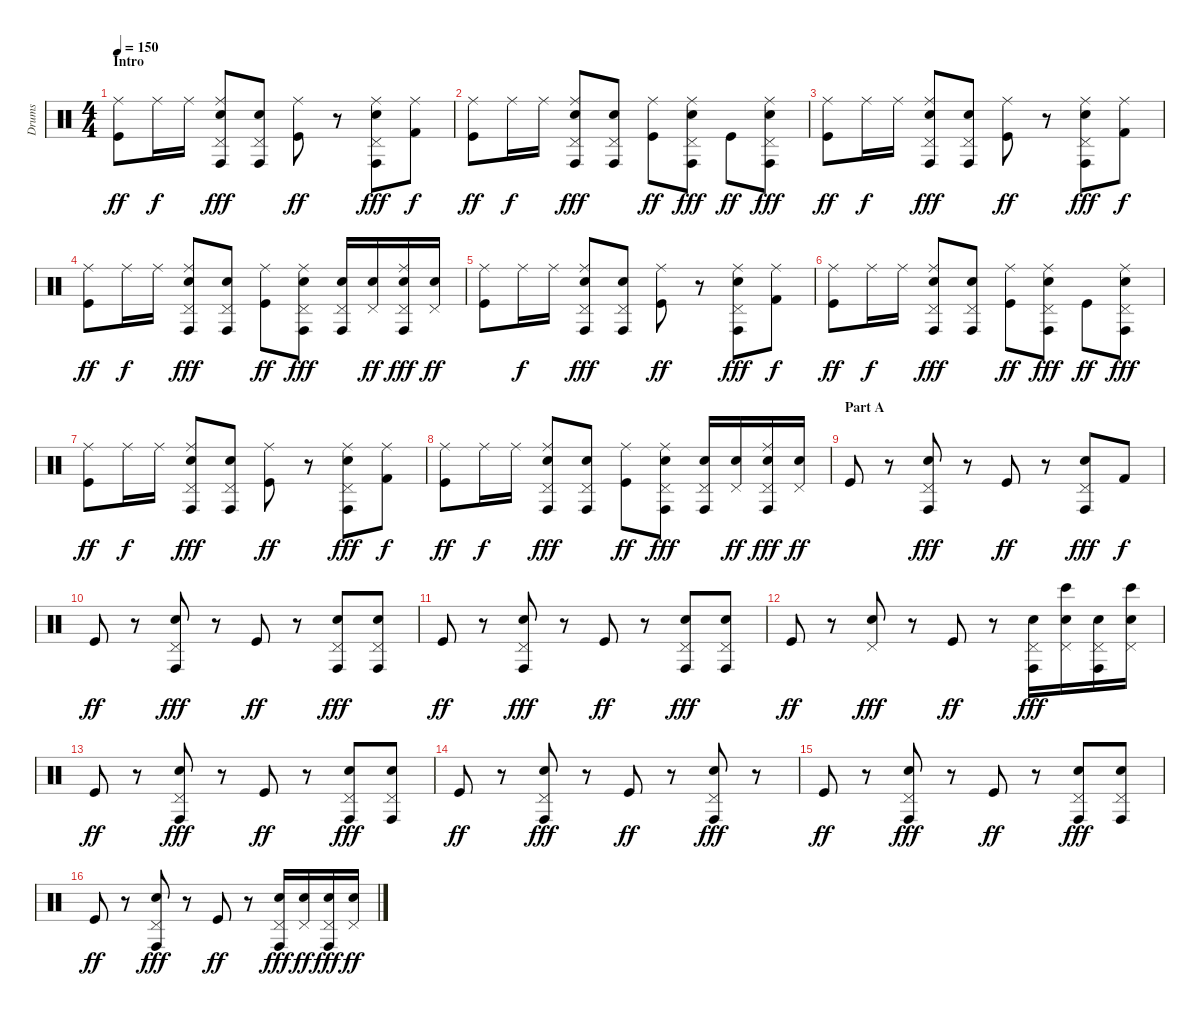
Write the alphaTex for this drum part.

\track ("Drums" "Drums") {instrument percussion}
\staff {score}
\articulation defaults
\ts (4 4)
\section ("" "Intro")
\tempo 150
\clef neutral
\ks c
("Ride (middle)" "Kick (hit)").8{dy ff} "Ride (middle)".16{dy f} "Ride (middle)".16 ("Ride (middle)" "Pedal Hi-Hat (hit)" "Conga high (hit)" "Electric Snare (hit)").8{dy fff} ("Pedal Hi-Hat (hit)" "Conga high (hit)" "Electric Snare (hit)").8 ("Ride (middle)" "Kick (hit)").8{dy ff} r.8 ("Ride (middle)" "Pedal Hi-Hat (hit)" "Conga high (hit)" "Electric Snare (hit)").8{dy fff} ("Ride (middle)" "Kick (hit) 2").8{dy f} |
("Ride (middle)" "Kick (hit)").8{dy ff} "Ride (middle)".16{dy f} "Ride (middle)".16 ("Ride (middle)" "Pedal Hi-Hat (hit)" "Conga high (hit)" "Electric Snare (hit)").8{dy fff} ("Pedal Hi-Hat (hit)" "Conga high (hit)" "Electric Snare (hit)").8 ("Ride (middle)" "Kick (hit)").8{dy ff} ("Ride (middle)" "Pedal Hi-Hat (hit)" "Conga high (hit)" "Electric Snare (hit)").8{dy fff} "Kick (hit)".8{dy ff} ("Ride (middle)" "Pedal Hi-Hat (hit)" "Conga high (hit)" "Electric Snare (hit)").8{dy fff} |
("Ride (middle)" "Kick (hit)").8{dy ff} "Ride (middle)".16{dy f} "Ride (middle)".16 ("Ride (middle)" "Pedal Hi-Hat (hit)" "Conga high (hit)" "Electric Snare (hit)").8{dy fff} ("Pedal Hi-Hat (hit)" "Conga high (hit)" "Electric Snare (hit)").8 ("Ride (middle)" "Kick (hit)").8{dy ff} r.8 ("Ride (middle)" "Pedal Hi-Hat (hit)" "Conga high (hit)" "Electric Snare (hit)").8{dy fff} ("Ride (middle)" "Kick (hit) 2").8{dy f} |
("Ride (middle)" "Kick (hit)").8{dy ff} "Ride (middle)".16{dy f} "Ride (middle)".16 ("Ride (middle)" "Pedal Hi-Hat (hit)" "Conga high (hit)" "Electric Snare (hit)").8{dy fff} ("Pedal Hi-Hat (hit)" "Conga high (hit)" "Electric Snare (hit)").8 ("Ride (middle)" "Kick (hit)").8{dy ff} ("Ride (middle)" "Pedal Hi-Hat (hit)" "Conga high (hit)" "Electric Snare (hit)").8{dy fff} ("Pedal Hi-Hat (hit)" "Conga high (hit)" "Electric Snare (hit)").16 ("Pedal Hi-Hat (hit)" "Electric Snare (hit)").16{dy ff} ("Ride (middle)" "Pedal Hi-Hat (hit)" "Conga high (hit)" "Electric Snare (hit)").16{dy fff} ("Pedal Hi-Hat (hit)" "Electric Snare (hit)").16{dy ff} |
("Ride (middle)" "Kick (hit)").8 "Ride (middle)".16{dy f} "Ride (middle)".16 ("Ride (middle)" "Pedal Hi-Hat (hit)" "Conga high (hit)" "Electric Snare (hit)").8{dy fff} ("Pedal Hi-Hat (hit)" "Conga high (hit)" "Electric Snare (hit)").8 ("Ride (middle)" "Kick (hit)").8{dy ff} r.8 ("Ride (middle)" "Pedal Hi-Hat (hit)" "Conga high (hit)" "Electric Snare (hit)").8{dy fff} ("Ride (middle)" "Kick (hit) 2").8{dy f} |
("Ride (middle)" "Kick (hit)").8{dy ff} "Ride (middle)".16{dy f} "Ride (middle)".16 ("Ride (middle)" "Pedal Hi-Hat (hit)" "Conga high (hit)" "Electric Snare (hit)").8{dy fff} ("Pedal Hi-Hat (hit)" "Conga high (hit)" "Electric Snare (hit)").8 ("Ride (middle)" "Kick (hit)").8{dy ff} ("Ride (middle)" "Pedal Hi-Hat (hit)" "Conga high (hit)" "Electric Snare (hit)").8{dy fff} "Kick (hit)".8{dy ff} ("Ride (middle)" "Pedal Hi-Hat (hit)" "Conga high (hit)" "Electric Snare (hit)").8{dy fff} |
("Ride (middle)" "Kick (hit)").8{dy ff} "Ride (middle)".16{dy f} "Ride (middle)".16 ("Ride (middle)" "Pedal Hi-Hat (hit)" "Conga high (hit)" "Electric Snare (hit)").8{dy fff} ("Pedal Hi-Hat (hit)" "Conga high (hit)" "Electric Snare (hit)").8 ("Ride (middle)" "Kick (hit)").8{dy ff} r.8 ("Ride (middle)" "Pedal Hi-Hat (hit)" "Conga high (hit)" "Electric Snare (hit)").8{dy fff} ("Ride (middle)" "Kick (hit) 2").8{dy f} |
("Ride (middle)" "Kick (hit)").8{dy ff} "Ride (middle)".16{dy f} "Ride (middle)".16 ("Ride (middle)" "Pedal Hi-Hat (hit)" "Conga high (hit)" "Electric Snare (hit)").8{dy fff} ("Pedal Hi-Hat (hit)" "Conga high (hit)" "Electric Snare (hit)").8 ("Ride (middle)" "Kick (hit)").8{dy ff} ("Ride (middle)" "Pedal Hi-Hat (hit)" "Conga high (hit)" "Electric Snare (hit)").8{dy fff} ("Pedal Hi-Hat (hit)" "Conga high (hit)" "Electric Snare (hit)").16 ("Pedal Hi-Hat (hit)" "Electric Snare (hit)").16{dy ff} ("Ride (middle)" "Pedal Hi-Hat (hit)" "Conga high (hit)" "Electric Snare (hit)").16{dy fff} ("Pedal Hi-Hat (hit)" "Electric Snare (hit)").16{dy ff} |
\section ("" "Part A")
"Kick (hit)".8 r.8 ("Pedal Hi-Hat (hit)" "Conga high (hit)" "Electric Snare (hit)").8{dy fff} r.8 "Kick (hit)".8{dy ff} r.8 ("Pedal Hi-Hat (hit)" "Conga high (hit)" "Electric Snare (hit)").8{dy fff} "Kick (hit) 2".8{dy f} |
"Kick (hit)".8{dy ff} r.8 ("Pedal Hi-Hat (hit)" "Conga high (hit)" "Electric Snare (hit)").8{dy fff} r.8 "Kick (hit)".8{dy ff} r.8 ("Pedal Hi-Hat (hit)" "Conga high (hit)" "Electric Snare (hit)").8{dy fff} ("Pedal Hi-Hat (hit)" "Conga high (hit)" "Electric Snare (hit)").8 |
"Kick (hit)".8{dy ff} r.8 ("Pedal Hi-Hat (hit)" "Conga high (hit)" "Electric Snare (hit)").8{dy fff} r.8 "Kick (hit)".8{dy ff} r.8 ("Pedal Hi-Hat (hit)" "Conga high (hit)" "Electric Snare (hit)").8{dy fff} ("Pedal Hi-Hat (hit)" "Conga high (hit)" "Electric Snare (hit)").8 |
"Kick (hit)".8{dy ff} r.8 ("Pedal Hi-Hat (hit)" "Electric Snare (hit)").8{dy fff} r.8 "Kick (hit)".8{dy ff} r.8 ("Pedal Hi-Hat (hit)" "Conga high (hit)" "Electric Snare (hit)").16{dy fff} ("Pedal Hi-Hat (hit)" "Bongo High (hit)" "Electric Snare (hit)").16 ("Pedal Hi-Hat (hit)" "Conga high (hit)" "Electric Snare (hit)").16 ("Pedal Hi-Hat (hit)" "Bongo High (hit)" "Electric Snare (hit)").16 |
"Kick (hit)".8{dy ff} r.8 ("Pedal Hi-Hat (hit)" "Conga high (hit)" "Electric Snare (hit)").8{dy fff} r.8 "Kick (hit)".8{dy ff} r.8 ("Pedal Hi-Hat (hit)" "Conga high (hit)" "Electric Snare (hit)").8{dy fff} ("Pedal Hi-Hat (hit)" "Conga high (hit)" "Electric Snare (hit)").8 |
"Kick (hit)".8{dy ff} r.8 ("Pedal Hi-Hat (hit)" "Conga high (hit)" "Electric Snare (hit)").8{dy fff} r.8 "Kick (hit)".8{dy ff} r.8 ("Pedal Hi-Hat (hit)" "Conga high (hit)" "Electric Snare (hit)").8{dy fff} r.8 |
"Kick (hit)".8{dy ff} r.8 ("Pedal Hi-Hat (hit)" "Conga high (hit)" "Electric Snare (hit)").8{dy fff} r.8 "Kick (hit)".8{dy ff} r.8 ("Pedal Hi-Hat (hit)" "Conga high (hit)" "Electric Snare (hit)").8{dy fff} ("Pedal Hi-Hat (hit)" "Conga high (hit)" "Electric Snare (hit)").8 |
"Kick (hit)".8{dy ff} r.8 ("Pedal Hi-Hat (hit)" "Conga high (hit)" "Electric Snare (hit)").8{dy fff} r.8 "Kick (hit)".8{dy ff} r.8 ("Pedal Hi-Hat (hit)" "Conga high (hit)" "Electric Snare (hit)").16{dy fff} ("Pedal Hi-Hat (hit)" "Electric Snare (hit)").16{dy ff} ("Pedal Hi-Hat (hit)" "Conga high (hit)" "Electric Snare (hit)").16{dy fff} ("Pedal Hi-Hat (hit)" "Electric Snare (hit)").16{dy ff}
